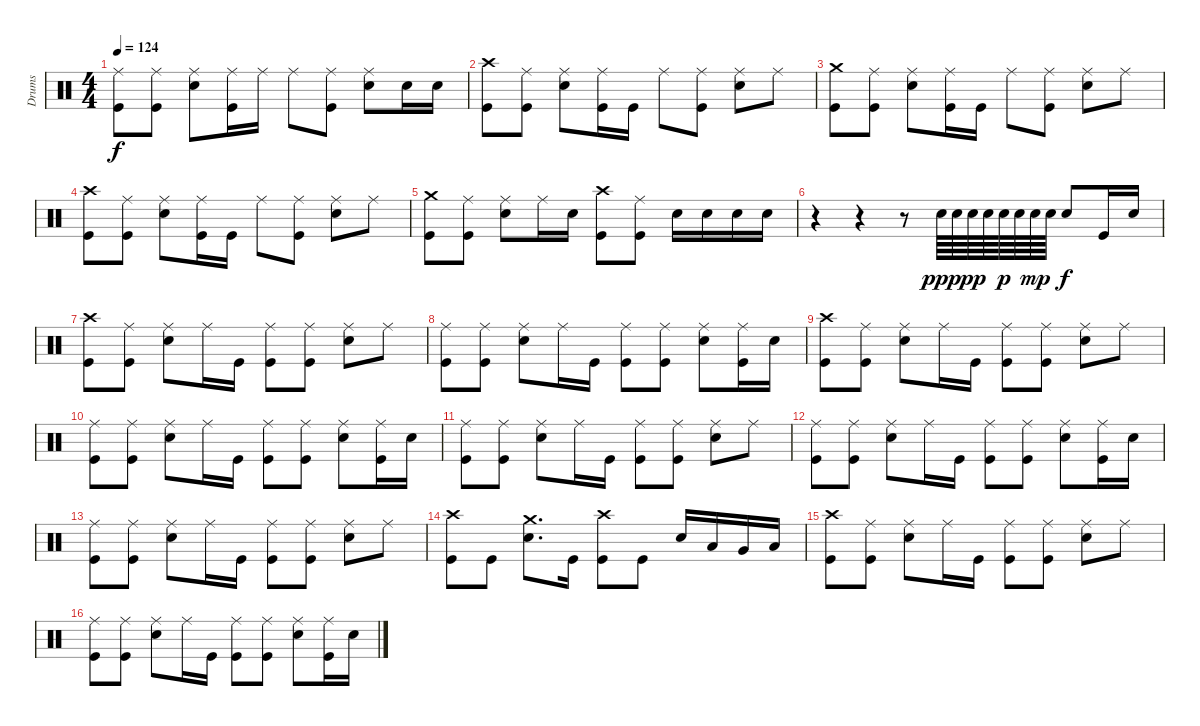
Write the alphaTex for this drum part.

\track ("Drums" "Drums") {instrument percussion}
\staff {score}
\articulation defaults
\ts (4 4)
\tempo 124
\clef neutral
\ks c
("Ride (middle)" "Kick (hit)").8{dy f} ("Ride (middle)" "Kick (hit)").8 ("Ride (middle)" "Electric Snare (hit)").8 ("Ride (middle)" "Kick (hit)").16 "Ride (middle)".16 "Ride (middle)".8 ("Ride (middle)" "Kick (hit)").8 ("Ride (middle)" "Electric Snare (hit)").8 "Electric Snare (hit)".16 "Electric Snare (hit)".16 |
("Crash high (hit)" "Kick (hit)").8 ("Ride (middle)" "Kick (hit)").8 ("Ride (middle)" "Electric Snare (hit)").8 ("Ride (middle)" "Kick (hit)").16 "Kick (hit)".16 "Ride (middle)".8 ("Ride (middle)" "Kick (hit)").8 ("Ride (middle)" "Electric Snare (hit)").8 "Ride (middle)".8 |
("Crash medium (hit)" "Kick (hit)").8 ("Ride (middle)" "Kick (hit)").8 ("Ride (middle)" "Electric Snare (hit)").8 ("Ride (middle)" "Kick (hit)").16 "Kick (hit)".16 "Ride (middle)".8 ("Ride (middle)" "Kick (hit)").8 ("Ride (middle)" "Electric Snare (hit)").8 "Ride (middle)".8 |
("Crash high (hit)" "Kick (hit)").8 ("Ride (middle)" "Kick (hit)").8 ("Ride (middle)" "Electric Snare (hit)").8 ("Ride (middle)" "Kick (hit)").16 "Kick (hit)".16 "Ride (middle)".8 ("Ride (middle)" "Kick (hit)").8 ("Ride (middle)" "Electric Snare (hit)").8 "Ride (middle)".8 |
("Crash medium (hit)" "Kick (hit)").8 ("Ride (middle)" "Kick (hit)").8 ("Ride (middle)" "Electric Snare (hit)").8 "Ride (middle)".16 "Electric Snare (hit)".16 ("Crash high (hit)" "Kick (hit)").8 ("Ride (middle)" "Kick (hit)").8 "Electric Snare (hit)".16 "Electric Snare (hit)".16 "Electric Snare (hit)".16 "Electric Snare (hit)".16 |
r.4 r.4 r.8 "Snare (hit) 2".64{dy ppp} "Snare (hit) 2".64 "Snare (hit) 2".64{dy pp} "Snare (hit) 2".64 "Snare (hit) 2".64{dy p} "Snare (hit) 2".64 "Snare (hit) 2".64{dy mp} "Snare (hit) 2".64 "Electric Snare (hit)".8{dy f} "Kick (hit)".16 "Electric Snare (hit)".16 |
("Crash high (hit)" "Kick (hit)").8 ("Ride (middle)" "Kick (hit)").8 ("Ride (middle)" "Electric Snare (hit)").8 "Ride (middle)".16 "Kick (hit)".16 ("Ride (middle)" "Kick (hit)").8 ("Ride (middle)" "Kick (hit)").8 ("Ride (middle)" "Electric Snare (hit)").8 "Ride (middle)".8 |
("Ride (middle)" "Kick (hit)").8 ("Ride (middle)" "Kick (hit)").8 ("Ride (middle)" "Electric Snare (hit)").8 "Ride (middle)".16 "Kick (hit)".16 ("Ride (middle)" "Kick (hit)").8 ("Ride (middle)" "Kick (hit)").8 ("Ride (middle)" "Electric Snare (hit)").8 ("Ride (middle)" "Kick (hit)").16 "Electric Snare (hit)".16 |
("Crash high (hit)" "Kick (hit)").8 ("Ride (middle)" "Kick (hit)").8 ("Ride (middle)" "Electric Snare (hit)").8 "Ride (middle)".16 "Kick (hit)".16 ("Ride (middle)" "Kick (hit)").8 ("Ride (middle)" "Kick (hit)").8 ("Ride (middle)" "Electric Snare (hit)").8 "Ride (middle)".8 |
("Ride (middle)" "Kick (hit)").8 ("Ride (middle)" "Kick (hit)").8 ("Ride (middle)" "Electric Snare (hit)").8 "Ride (middle)".16 "Kick (hit)".16 ("Ride (middle)" "Kick (hit)").8 ("Ride (middle)" "Kick (hit)").8 ("Ride (middle)" "Electric Snare (hit)").8 ("Ride (middle)" "Kick (hit)").16 "Electric Snare (hit)".16 |
("Ride (middle)" "Kick (hit)").8 ("Ride (middle)" "Kick (hit)").8 ("Ride (middle)" "Electric Snare (hit)").8 "Ride (middle)".16 "Kick (hit)".16 ("Ride (middle)" "Kick (hit)").8 ("Ride (middle)" "Kick (hit)").8 ("Ride (middle)" "Electric Snare (hit)").8 "Ride (middle)".8 |
("Ride (middle)" "Kick (hit)").8 ("Ride (middle)" "Kick (hit)").8 ("Ride (middle)" "Electric Snare (hit)").8 "Ride (middle)".16 "Kick (hit)".16 ("Ride (middle)" "Kick (hit)").8 ("Ride (middle)" "Kick (hit)").8 ("Ride (middle)" "Electric Snare (hit)").8 ("Ride (middle)" "Kick (hit)").16 "Electric Snare (hit)".16 |
("Ride (middle)" "Kick (hit)").8 ("Ride (middle)" "Kick (hit)").8 ("Ride (middle)" "Electric Snare (hit)").8 "Ride (middle)".16 "Kick (hit)".16 ("Ride (middle)" "Kick (hit)").8 ("Ride (middle)" "Kick (hit)").8 ("Ride (middle)" "Electric Snare (hit)").8 "Ride (middle)".8 |
("Crash high (hit)" "Kick (hit)").8 "Kick (hit)".8 ("Crash medium (hit)" "Electric Snare (hit)").8{d} "Kick (hit)".16 ("Crash high (hit)" "Kick (hit)").8 "Kick (hit)".8 "Electric Snare (hit)".16 "Low Tom (hit)".16 "Very Low Tom (hit)".16 "Low Floor Tom (hit)".16 |
("Crash high (hit)" "Kick (hit)").8 ("Ride (middle)" "Kick (hit)").8 ("Ride (middle)" "Electric Snare (hit)").8 "Ride (middle)".16 "Kick (hit)".16 ("Ride (middle)" "Kick (hit)").8 ("Ride (middle)" "Kick (hit)").8 ("Ride (middle)" "Electric Snare (hit)").8 "Ride (middle)".8 |
("Ride (middle)" "Kick (hit)").8 ("Ride (middle)" "Kick (hit)").8 ("Ride (middle)" "Electric Snare (hit)").8 "Ride (middle)".16 "Kick (hit)".16 ("Ride (middle)" "Kick (hit)").8 ("Ride (middle)" "Kick (hit)").8 ("Ride (middle)" "Electric Snare (hit)").8 ("Ride (middle)" "Kick (hit)").16 "Electric Snare (hit)".16
